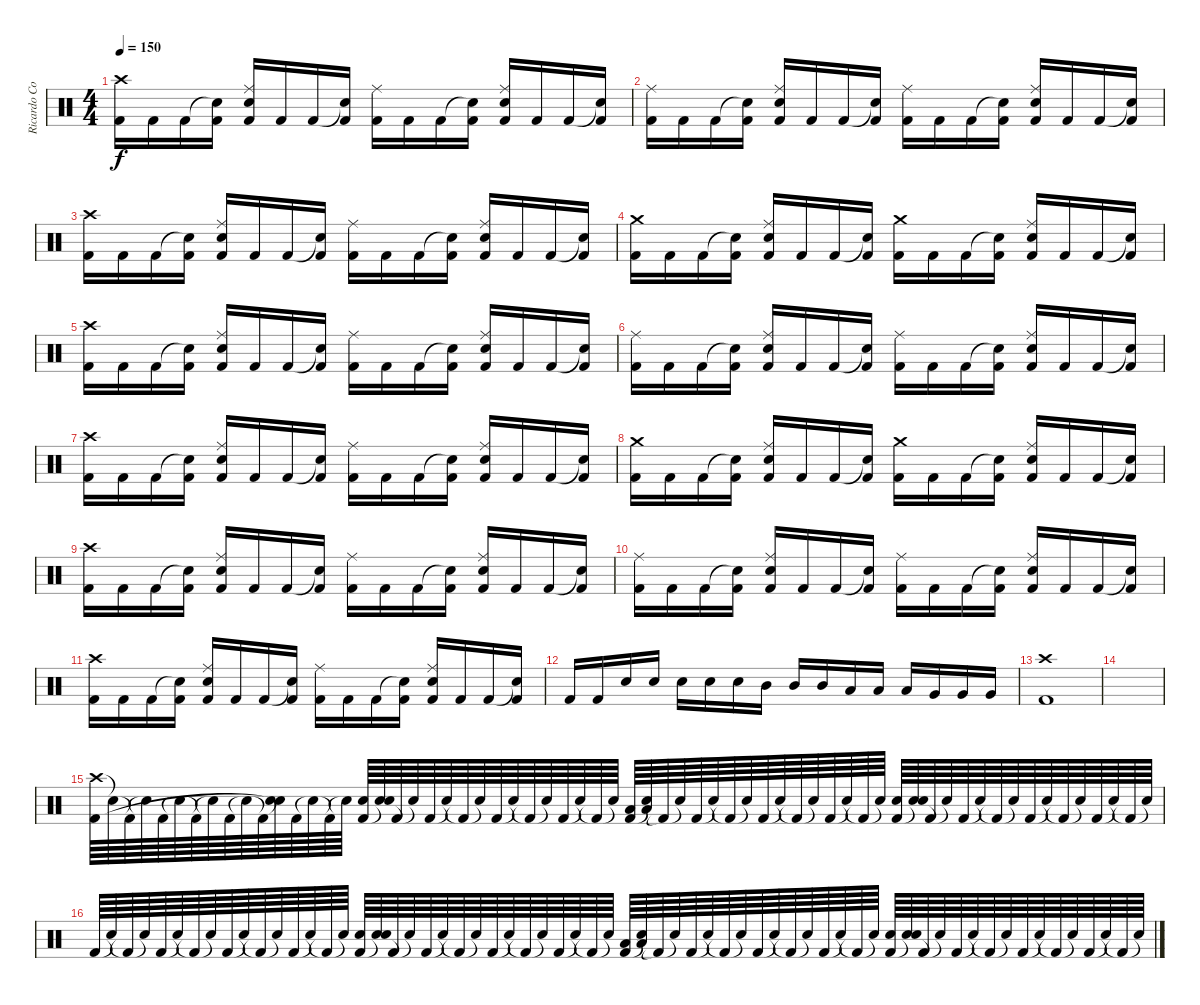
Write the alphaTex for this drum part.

\track ("Ricardo Confessori" "Ricardo Co") {instrument percussion}
\staff {score}
\articulation defaults
\ts (4 4)
\tempo 150
\clef neutral
\ks c
("Crash high (hit)" "Kick (hit) 2").16{dy f} "Kick (hit) 2".16 "Kick (hit) 2".16 ("Snare (hit)"{t} "Kick (hit) 2").16 ("Ride (middle)" "Electric Snare (hit)" "Kick (hit) 2").16 "Kick (hit) 2".16 "Kick (hit) 2".16 ("Snare (hit)"{t} "Kick (hit) 2").16 ("Ride (middle)" "Kick (hit) 2").16 "Kick (hit) 2".16 "Kick (hit) 2".16 ("Snare (hit)"{t} "Kick (hit) 2").16 ("Ride (middle)" "Electric Snare (hit)" "Kick (hit) 2").16 "Kick (hit) 2".16 "Kick (hit) 2".16 ("Snare (hit)"{t} "Kick (hit) 2").16 |
("Ride (middle)" "Kick (hit) 2").16 "Kick (hit) 2".16 "Kick (hit) 2".16 ("Snare (hit)"{t} "Kick (hit) 2").16 ("Ride (middle)" "Electric Snare (hit)" "Kick (hit) 2").16 "Kick (hit) 2".16 "Kick (hit) 2".16 ("Snare (hit)"{t} "Kick (hit) 2").16 ("Ride (middle)" "Kick (hit) 2").16 "Kick (hit) 2".16 "Kick (hit) 2".16 ("Snare (hit)"{t} "Kick (hit) 2").16 ("Ride (middle)" "Electric Snare (hit)" "Kick (hit) 2").16 "Kick (hit) 2".16 "Kick (hit) 2".16 ("Snare (hit)"{t} "Kick (hit) 2").16 |
("Crash high (hit)" "Kick (hit) 2").16 "Kick (hit) 2".16 "Kick (hit) 2".16 ("Snare (hit)"{t} "Kick (hit) 2").16 ("Ride (middle)" "Electric Snare (hit)" "Kick (hit) 2").16 "Kick (hit) 2".16 "Kick (hit) 2".16 ("Snare (hit)"{t} "Kick (hit) 2").16 ("Ride (middle)" "Kick (hit) 2").16 "Kick (hit) 2".16 "Kick (hit) 2".16 ("Snare (hit)"{t} "Kick (hit) 2").16 ("Ride (middle)" "Electric Snare (hit)" "Kick (hit) 2").16 "Kick (hit) 2".16 "Kick (hit) 2".16 ("Snare (hit)"{t} "Kick (hit) 2").16 |
("Crash medium (hit)" "Kick (hit) 2").16 "Kick (hit) 2".16 "Kick (hit) 2".16 ("Snare (hit)"{t} "Kick (hit) 2").16 ("Ride (middle)" "Electric Snare (hit)" "Kick (hit) 2").16 "Kick (hit) 2".16 "Kick (hit) 2".16 ("Snare (hit)"{t} "Kick (hit) 2").16 ("Crash medium (hit)" "Kick (hit) 2").16 "Kick (hit) 2".16 "Kick (hit) 2".16 ("Snare (hit)"{t} "Kick (hit) 2").16 ("Ride (middle)" "Electric Snare (hit)" "Kick (hit) 2").16 "Kick (hit) 2".16 "Kick (hit) 2".16 ("Snare (hit)"{t} "Kick (hit) 2").16 |
("Crash high (hit)" "Kick (hit) 2").16 "Kick (hit) 2".16 "Kick (hit) 2".16 ("Snare (hit)"{t} "Kick (hit) 2").16 ("Ride (middle)" "Electric Snare (hit)" "Kick (hit) 2").16 "Kick (hit) 2".16 "Kick (hit) 2".16 ("Snare (hit)"{t} "Kick (hit) 2").16 ("Ride (middle)" "Kick (hit) 2").16 "Kick (hit) 2".16 "Kick (hit) 2".16 ("Snare (hit)"{t} "Kick (hit) 2").16 ("Ride (middle)" "Electric Snare (hit)" "Kick (hit) 2").16 "Kick (hit) 2".16 "Kick (hit) 2".16 ("Snare (hit)"{t} "Kick (hit) 2").16 |
("Ride (middle)" "Kick (hit) 2").16 "Kick (hit) 2".16 "Kick (hit) 2".16 ("Snare (hit)"{t} "Kick (hit) 2").16 ("Ride (middle)" "Electric Snare (hit)" "Kick (hit) 2").16 "Kick (hit) 2".16 "Kick (hit) 2".16 ("Snare (hit)"{t} "Kick (hit) 2").16 ("Ride (middle)" "Kick (hit) 2").16 "Kick (hit) 2".16 "Kick (hit) 2".16 ("Snare (hit)"{t} "Kick (hit) 2").16 ("Ride (middle)" "Electric Snare (hit)" "Kick (hit) 2").16 "Kick (hit) 2".16 "Kick (hit) 2".16 ("Snare (hit)"{t} "Kick (hit) 2").16 |
("Crash high (hit)" "Kick (hit) 2").16 "Kick (hit) 2".16 "Kick (hit) 2".16 ("Snare (hit)"{t} "Kick (hit) 2").16 ("Ride (middle)" "Electric Snare (hit)" "Kick (hit) 2").16 "Kick (hit) 2".16 "Kick (hit) 2".16 ("Snare (hit)"{t} "Kick (hit) 2").16 ("Ride (middle)" "Kick (hit) 2").16 "Kick (hit) 2".16 "Kick (hit) 2".16 ("Snare (hit)"{t} "Kick (hit) 2").16 ("Ride (middle)" "Electric Snare (hit)" "Kick (hit) 2").16 "Kick (hit) 2".16 "Kick (hit) 2".16 ("Snare (hit)"{t} "Kick (hit) 2").16 |
("Crash medium (hit)" "Kick (hit) 2").16 "Kick (hit) 2".16 "Kick (hit) 2".16 ("Snare (hit)"{t} "Kick (hit) 2").16 ("Ride (middle)" "Electric Snare (hit)" "Kick (hit) 2").16 "Kick (hit) 2".16 "Kick (hit) 2".16 ("Snare (hit)"{t} "Kick (hit) 2").16 ("Crash medium (hit)" "Kick (hit) 2").16 "Kick (hit) 2".16 "Kick (hit) 2".16 ("Snare (hit)"{t} "Kick (hit) 2").16 ("Ride (middle)" "Electric Snare (hit)" "Kick (hit) 2").16 "Kick (hit) 2".16 "Kick (hit) 2".16 ("Snare (hit)"{t} "Kick (hit) 2").16 |
("Crash high (hit)" "Kick (hit) 2").16 "Kick (hit) 2".16 "Kick (hit) 2".16 ("Snare (hit)"{t} "Kick (hit) 2").16 ("Ride (middle)" "Electric Snare (hit)" "Kick (hit) 2").16 "Kick (hit) 2".16 "Kick (hit) 2".16 ("Snare (hit)"{t} "Kick (hit) 2").16 ("Ride (middle)" "Kick (hit) 2").16 "Kick (hit) 2".16 "Kick (hit) 2".16 ("Snare (hit)"{t} "Kick (hit) 2").16 ("Ride (middle)" "Electric Snare (hit)" "Kick (hit) 2").16 "Kick (hit) 2".16 "Kick (hit) 2".16 ("Snare (hit)"{t} "Kick (hit) 2").16 |
("Ride (middle)" "Kick (hit) 2").16 "Kick (hit) 2".16 "Kick (hit) 2".16 ("Snare (hit)"{t} "Kick (hit) 2").16 ("Ride (middle)" "Electric Snare (hit)" "Kick (hit) 2").16 "Kick (hit) 2".16 "Kick (hit) 2".16 ("Snare (hit)"{t} "Kick (hit) 2").16 ("Ride (middle)" "Kick (hit) 2").16 "Kick (hit) 2".16 "Kick (hit) 2".16 ("Snare (hit)"{t} "Kick (hit) 2").16 ("Ride (middle)" "Electric Snare (hit)" "Kick (hit) 2").16 "Kick (hit) 2".16 "Kick (hit) 2".16 ("Snare (hit)"{t} "Kick (hit) 2").16 |
("Crash high (hit)" "Kick (hit) 2").16 "Kick (hit) 2".16 "Kick (hit) 2".16 ("Snare (hit)"{t} "Kick (hit) 2").16 ("Ride (middle)" "Electric Snare (hit)" "Kick (hit) 2").16 "Kick (hit) 2".16 "Kick (hit) 2".16 ("Snare (hit)"{t} "Kick (hit) 2").16 ("Ride (middle)" "Kick (hit) 2").16 "Kick (hit) 2".16 "Kick (hit) 2".16 ("Snare (hit)"{t} "Kick (hit) 2").16 ("Ride (middle)" "Electric Snare (hit)" "Kick (hit) 2").16 "Kick (hit) 2".16 "Kick (hit) 2".16 ("Snare (hit)"{t} "Kick (hit) 2").16 |
"Kick (hit) 2".16 "Kick (hit) 2".16 "Electric Snare (hit)".16 "Electric Snare (hit)".16 "Electric Snare (hit)".16 "Electric Snare (hit)".16 "Electric Snare (hit)".16 "Mid Tom (hit)".16 "Mid Tom (hit)".16 "Mid Tom (hit)".16 "Low Tom (hit)".16 "Low Tom (hit)".16 "Low Tom (hit)".16 "Very Low Tom (hit)".16 "Very Low Tom (hit)".16 "Very Low Tom (hit)".16 |
("Crash high (hit)" "Kick (hit) 2").1 |
|
("Crash high (hit)" "Kick (hit) 2").64 "Snare (hit)"{t}.64 "Kick (hit) 2"{t}.64 "Snare (hit)"{t}.64 "Kick (hit) 2".64 "Snare (hit)"{t}.64 "Kick (hit) 2"{t}.64 "Snare (hit)"{t}.64 "Kick (hit) 2".64 "Snare (hit)"{t}.64 "Kick (hit) 2"{t}.64 ("Snare (hit)"{t} "Snare (hit)"{t}).64 "Kick (hit) 2".64 "Snare (hit)"{t}.64 "Kick (hit) 2"{t}.64 "Snare (hit)"{t}.64 ("Electric Snare (hit)" "Kick (hit) 2").64 ("Electric Snare (hit)" "Snare (hit)"{t}).64 "Kick (hit) 2"{t}.64 "Snare (hit)"{t}.64 "Kick (hit) 2".64 "Snare (hit)"{t}.64 "Kick (hit) 2"{t}.64 "Snare (hit)"{t}.64 "Kick (hit) 2".64 "Snare (hit)"{t}.64 "Kick (hit) 2"{t}.64 "Snare (hit)"{t}.64 "Kick (hit) 2".64 "Snare (hit)"{t}.64 "Kick (hit) 2"{t}.64 "Snare (hit)"{t}.64 ("Low Tom (hit)" "Kick (hit) 2").64 ("Low Tom (hit)" "Snare (hit)"{t}).64 "Kick (hit) 2"{t}.64 "Snare (hit)"{t}.64 "Kick (hit) 2".64 "Snare (hit)"{t}.64 "Kick (hit) 2"{t}.64 "Snare (hit)"{t}.64 "Kick (hit) 2".64 "Snare (hit)"{t}.64 "Kick (hit) 2"{t}.64 "Snare (hit)"{t}.64 "Kick (hit) 2".64 "Snare (hit)"{t}.64 "Kick (hit) 2"{t}.64 "Snare (hit)"{t}.64 ("Electric Snare (hit)" "Kick (hit) 2").64 ("Electric Snare (hit)" "Snare (hit)"{t}).64 "Kick (hit) 2"{t}.64 "Snare (hit)"{t}.64 "Kick (hit) 2".64 "Snare (hit)"{t}.64 "Kick (hit) 2"{t}.64 "Snare (hit)"{t}.64 "Kick (hit) 2".64 "Snare (hit)"{t}.64 "Kick (hit) 2"{t}.64 "Snare (hit)"{t}.64 "Kick (hit) 2".64 "Snare (hit)"{t}.64 "Kick (hit) 2"{t}.64 "Snare (hit)"{t}.64 |
"Kick (hit) 2".64 "Snare (hit)"{t}.64 "Kick (hit) 2"{t}.64 "Snare (hit)"{t}.64 "Kick (hit) 2".64 "Snare (hit)"{t}.64 "Kick (hit) 2"{t}.64 "Snare (hit)"{t}.64 "Kick (hit) 2".64 "Snare (hit)"{t}.64 "Kick (hit) 2"{t}.64 "Snare (hit)"{t}.64 "Kick (hit) 2".64 "Snare (hit)"{t}.64 "Kick (hit) 2"{t}.64 "Snare (hit)"{t}.64 ("Electric Snare (hit)" "Kick (hit) 2").64 ("Electric Snare (hit)" "Snare (hit)"{t}).64 "Kick (hit) 2"{t}.64 "Snare (hit)"{t}.64 "Kick (hit) 2".64 "Snare (hit)"{t}.64 "Kick (hit) 2"{t}.64 "Snare (hit)"{t}.64 "Kick (hit) 2".64 "Snare (hit)"{t}.64 "Kick (hit) 2"{t}.64 "Snare (hit)"{t}.64 "Kick (hit) 2".64 "Snare (hit)"{t}.64 "Kick (hit) 2"{t}.64 "Snare (hit)"{t}.64 ("Low Tom (hit)" "Kick (hit) 2").64 ("Low Tom (hit)" "Snare (hit)"{t}).64 "Kick (hit) 2"{t}.64 "Snare (hit)"{t}.64 "Kick (hit) 2".64 "Snare (hit)"{t}.64 "Kick (hit) 2"{t}.64 "Snare (hit)"{t}.64 "Kick (hit) 2".64 "Snare (hit)"{t}.64 "Kick (hit) 2"{t}.64 "Snare (hit)"{t}.64 "Kick (hit) 2".64 "Snare (hit)"{t}.64 "Kick (hit) 2"{t}.64 "Snare (hit)"{t}.64 ("Electric Snare (hit)" "Kick (hit) 2").64 ("Electric Snare (hit)" "Snare (hit)"{t}).64 "Kick (hit) 2"{t}.64 "Snare (hit)"{t}.64 "Kick (hit) 2".64 "Snare (hit)"{t}.64 "Kick (hit) 2"{t}.64 "Snare (hit)"{t}.64 "Kick (hit) 2".64 "Snare (hit)"{t}.64 "Kick (hit) 2"{t}.64 "Snare (hit)"{t}.64 "Kick (hit) 2".64 "Snare (hit)"{t}.64 "Kick (hit) 2"{t}.64 "Snare (hit)"{t}.64
